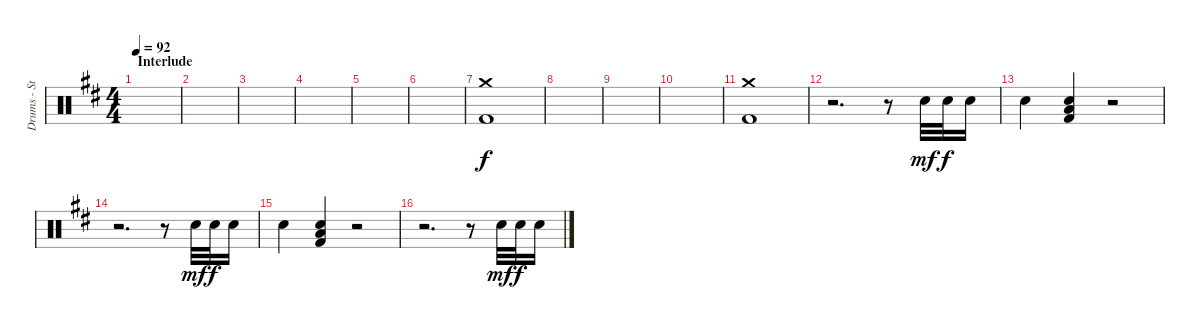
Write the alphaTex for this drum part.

\track ("Drums - Steve Wacholz" "Drums - St") {instrument percussion}
\staff {score}
\articulation defaults
\ts (4 4)
\section ("" "Interlude")
\tempo 92
\clef neutral
\ks d
|
|
|
|
|
|
("Crash medium (hit)" "Kick (hit) 2").1 |
|
|
|
("Crash medium (hit)" "Kick (hit) 2").1 |
r.2{d} r.8 "Electric Snare (hit)".32{dy mf} "Electric Snare (hit)".32{dy f} "Electric Snare (hit)".16 |
"Electric Snare (hit)".4 ("Low Tom (hit)" "Electric Snare (hit)" "Kick (hit) 2").4 r.2 |
r.2{d} r.8 "Electric Snare (hit)".32{dy mf} "Electric Snare (hit)".32{dy f} "Electric Snare (hit)".16 |
"Electric Snare (hit)".4 ("Low Tom (hit)" "Electric Snare (hit)" "Kick (hit) 2").4 r.2 |
r.2{d} r.8 "Electric Snare (hit)".32{dy mf} "Electric Snare (hit)".32{dy f} "Electric Snare (hit)".16
